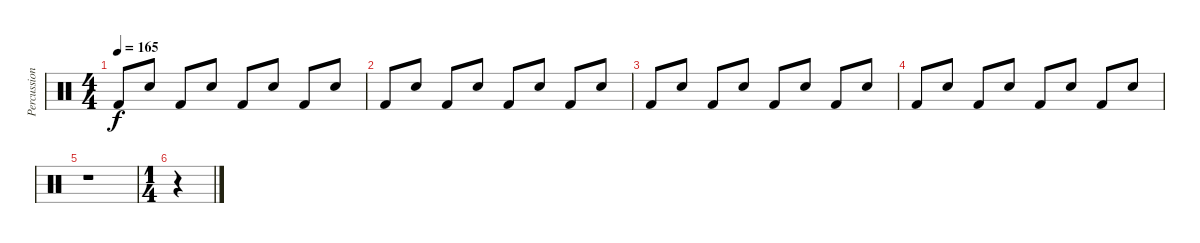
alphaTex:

\track ("Percussions" "Percussion") {instrument percussion}
\staff {score}
\articulation defaults
\ts (4 4)
\tempo 165
\clef neutral
\ks c "Kick (hit) 2".8{dy f} "Electric Snare (hit)".8 "Kick (hit) 2".8 "Electric Snare (hit)".8 "Kick (hit) 2".8 "Electric Snare (hit)".8 "Kick (hit) 2".8 "Electric Snare (hit)".8
|
"Kick (hit) 2".8 "Electric Snare (hit)".8 "Kick (hit) 2".8 "Electric Snare (hit)".8 "Kick (hit) 2".8 "Electric Snare (hit)".8 "Kick (hit) 2".8 "Electric Snare (hit)".8 |
"Kick (hit) 2".8 "Electric Snare (hit)".8 "Kick (hit) 2".8 "Electric Snare (hit)".8 "Kick (hit) 2".8 "Electric Snare (hit)".8 "Kick (hit) 2".8 "Electric Snare (hit)".8 |
"Kick (hit) 2".8 "Electric Snare (hit)".8 "Kick (hit) 2".8 "Electric Snare (hit)".8 "Kick (hit) 2".8 "Electric Snare (hit)".8 "Kick (hit) 2".8 "Electric Snare (hit)".8 |
r.1 |
\ts (1 4)
r.4
